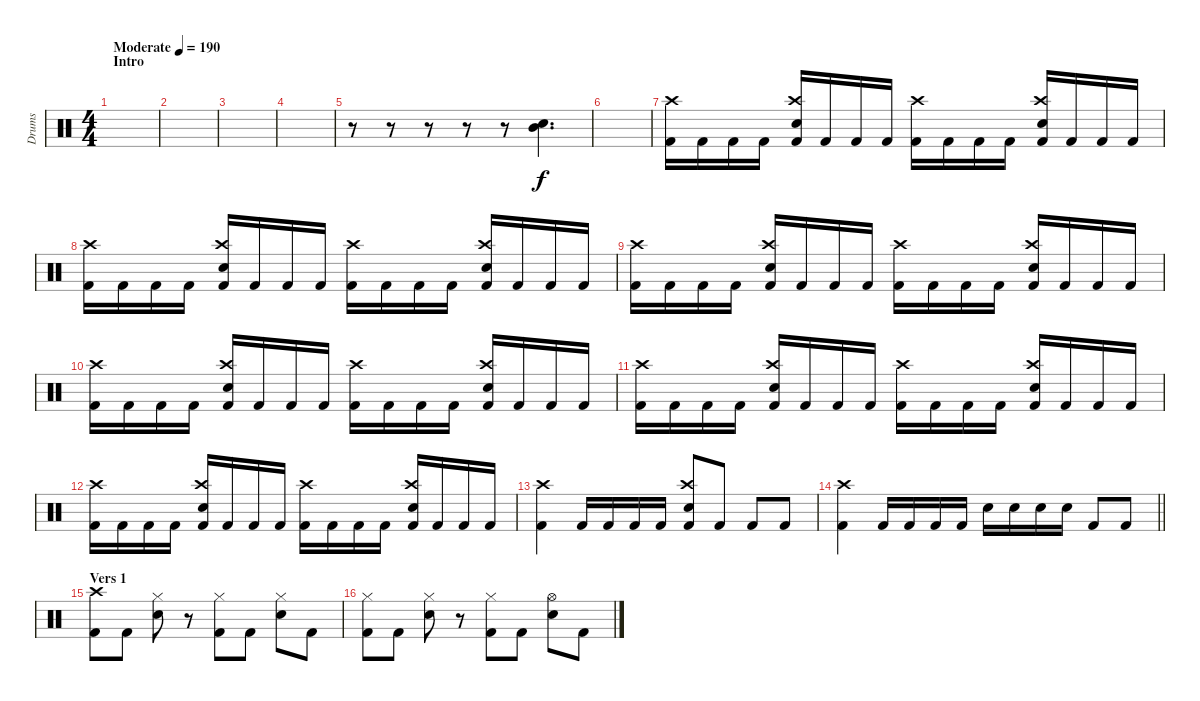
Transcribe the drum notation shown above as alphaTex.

\track ("Drums" "Drums") {instrument percussion}
\staff {score}
\articulation defaults
\ts (4 4)
\section ("" "Intro")
\tempo (190 "Moderate")
\clef neutral
\ks c
|
|
|
|
r.8 r.8 r.8 r.8 r.8 ("Electric Snare (hit)" "Mid Tom (hit)").4{d} |
|
("Crash high (hit)" "Kick (hit) 2").16 "Kick (hit) 2".16 "Kick (hit) 2".16 "Kick (hit) 2".16 ("Crash high (hit)" "Electric Snare (hit)" "Kick (hit) 2").16 "Kick (hit) 2".16 "Kick (hit) 2".16 "Kick (hit) 2".16 ("Crash high (hit)" "Kick (hit) 2").16 "Kick (hit) 2".16 "Kick (hit) 2".16 "Kick (hit) 2".16 ("Crash high (hit)" "Electric Snare (hit)" "Kick (hit) 2").16 "Kick (hit) 2".16 "Kick (hit) 2".16 "Kick (hit) 2".16 |
("Crash high (hit)" "Kick (hit) 2").16 "Kick (hit) 2".16 "Kick (hit) 2".16 "Kick (hit) 2".16 ("Crash high (hit)" "Electric Snare (hit)" "Kick (hit) 2").16 "Kick (hit) 2".16 "Kick (hit) 2".16 "Kick (hit) 2".16 ("Crash high (hit)" "Kick (hit) 2").16 "Kick (hit) 2".16 "Kick (hit) 2".16 "Kick (hit) 2".16 ("Crash high (hit)" "Electric Snare (hit)" "Kick (hit) 2").16 "Kick (hit) 2".16 "Kick (hit) 2".16 "Kick (hit) 2".16 |
("Crash high (hit)" "Kick (hit) 2").16 "Kick (hit) 2".16 "Kick (hit) 2".16 "Kick (hit) 2".16 ("Crash high (hit)" "Electric Snare (hit)" "Kick (hit) 2").16 "Kick (hit) 2".16 "Kick (hit) 2".16 "Kick (hit) 2".16 ("Crash high (hit)" "Kick (hit) 2").16 "Kick (hit) 2".16 "Kick (hit) 2".16 "Kick (hit) 2".16 ("Crash high (hit)" "Electric Snare (hit)" "Kick (hit) 2").16 "Kick (hit) 2".16 "Kick (hit) 2".16 "Kick (hit) 2".16 |
("Crash high (hit)" "Kick (hit) 2").16 "Kick (hit) 2".16 "Kick (hit) 2".16 "Kick (hit) 2".16 ("Crash high (hit)" "Electric Snare (hit)" "Kick (hit) 2").16 "Kick (hit) 2".16 "Kick (hit) 2".16 "Kick (hit) 2".16 ("Crash high (hit)" "Kick (hit) 2").16 "Kick (hit) 2".16 "Kick (hit) 2".16 "Kick (hit) 2".16 ("Crash high (hit)" "Electric Snare (hit)" "Kick (hit) 2").16 "Kick (hit) 2".16 "Kick (hit) 2".16 "Kick (hit) 2".16 |
("Crash high (hit)" "Kick (hit) 2").16 "Kick (hit) 2".16 "Kick (hit) 2".16 "Kick (hit) 2".16 ("Crash high (hit)" "Electric Snare (hit)" "Kick (hit) 2").16 "Kick (hit) 2".16 "Kick (hit) 2".16 "Kick (hit) 2".16 ("Crash high (hit)" "Kick (hit) 2").16 "Kick (hit) 2".16 "Kick (hit) 2".16 "Kick (hit) 2".16 ("Crash high (hit)" "Electric Snare (hit)" "Kick (hit) 2").16 "Kick (hit) 2".16 "Kick (hit) 2".16 "Kick (hit) 2".16 |
("Crash high (hit)" "Kick (hit) 2").16 "Kick (hit) 2".16 "Kick (hit) 2".16 "Kick (hit) 2".16 ("Crash high (hit)" "Electric Snare (hit)" "Kick (hit) 2").16 "Kick (hit) 2".16 "Kick (hit) 2".16 "Kick (hit) 2".16 ("Crash high (hit)" "Kick (hit) 2").16 "Kick (hit) 2".16 "Kick (hit) 2".16 "Kick (hit) 2".16 ("Crash high (hit)" "Electric Snare (hit)" "Kick (hit) 2").16 "Kick (hit) 2".16 "Kick (hit) 2".16 "Kick (hit) 2".16 |
("Crash high (hit)" "Kick (hit) 2").4 "Kick (hit) 2".16 "Kick (hit) 2".16 "Kick (hit) 2".16 "Kick (hit) 2".16 ("Crash high (hit)" "Electric Snare (hit)" "Kick (hit) 2").8 "Kick (hit) 2".8 "Kick (hit) 2".8 "Kick (hit) 2".8 |
\barLineRight lightlight
("Crash high (hit)" "Kick (hit) 2").4 "Kick (hit) 2".16 "Kick (hit) 2".16 "Kick (hit) 2".16 "Kick (hit) 2".16 "Electric Snare (hit)".16 "Electric Snare (hit)".16 "Electric Snare (hit)".16 "Electric Snare (hit)".16 "Kick (hit) 2".8 "Kick (hit) 2".8 |
\section ("" "Vers 1")
("Crash high (hit)" "Kick (hit) 2").8 "Kick (hit) 2".8 ("Hi-Hat (closed)" "Electric Snare (hit)").8 r.8 ("Hi-Hat (closed)" "Kick (hit) 2").8 "Kick (hit) 2".8 ("Hi-Hat (closed)" "Electric Snare (hit)").8 "Kick (hit) 2".8 |
("Hi-Hat (closed)" "Kick (hit) 2").8 "Kick (hit) 2".8 ("Hi-Hat (closed)" "Electric Snare (hit)").8 r.8 ("Hi-Hat (closed)" "Kick (hit) 2").8 "Kick (hit) 2".8 ("Hi-Hat (open)" "Electric Snare (hit)").8 "Kick (hit) 2".8
